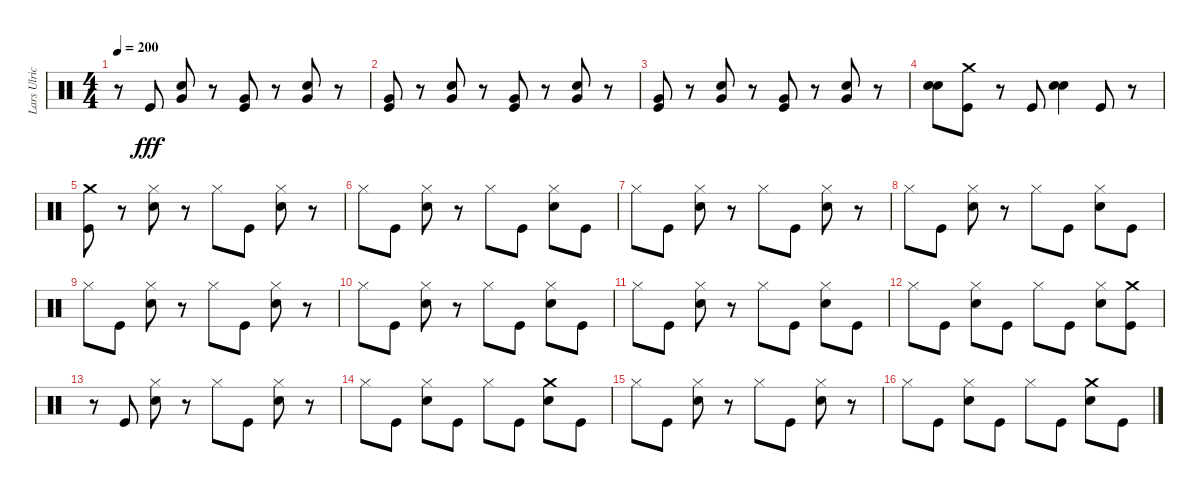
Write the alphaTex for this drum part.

\track ("Lars Ulrich" "Lars Ulric") {instrument percussion}
\staff {score}
\articulation defaults
\ts (4 4)
\tempo 200
\clef neutral
\ks c
r.8{dy fff} "Kick (hit)".8 ("Very Low Tom (hit)" "Snare (hit) 2").8 r.8 ("Kick (hit)" "Very Low Tom (hit)").8 r.8 ("Very Low Tom (hit)" "Snare (hit) 2").8 r.8 |
("Kick (hit)" "Very Low Tom (hit)").8 r.8 ("Very Low Tom (hit)" "Snare (hit) 2").8 r.8 ("Kick (hit)" "Very Low Tom (hit)").8 r.8 ("Very Low Tom (hit)" "Snare (hit) 2").8 r.8 |
("Very Low Tom (hit)" "Kick (hit)").8 r.8 ("Snare (hit) 2" "Very Low Tom (hit)").8 r.8 ("Very Low Tom (hit)" "Kick (hit)").8 r.8 ("Very Low Tom (hit)" "Snare (hit) 2").8 r.8 |
("Snare (hit) 2" "Snare (hit) 2").8 ("Kick (hit)" "Crash medium (hit)").8 r.8 "Kick (hit)".8 ("Snare (hit) 2" "Snare (hit) 2").4 "Kick (hit)".8 r.8 |
("Crash medium (hit)" "Kick (hit)").8 r.8 ("Hi-Hat (closed)" "Snare (hit) 2").8 r.8 "Hi-Hat (closed)".8 "Kick (hit)".8 ("Hi-Hat (closed)" "Snare (hit) 2").8 r.8 |
"Hi-Hat (closed)".8 "Kick (hit)".8 ("Hi-Hat (closed)" "Snare (hit) 2").8 r.8 "Hi-Hat (closed)".8 "Kick (hit)".8 ("Hi-Hat (closed)" "Snare (hit) 2").8 "Kick (hit)".8 |
"Hi-Hat (closed)".8 "Kick (hit)".8 ("Hi-Hat (closed)" "Snare (hit) 2").8 r.8 "Hi-Hat (closed)".8 "Kick (hit)".8 ("Snare (hit) 2" "Hi-Hat (closed)").8 r.8 |
"Hi-Hat (closed)".8 "Kick (hit)".8 ("Hi-Hat (closed)" "Snare (hit) 2").8 r.8 "Hi-Hat (closed)".8 "Kick (hit)".8 ("Hi-Hat (closed)" "Snare (hit) 2").8 "Kick (hit)".8 |
"Hi-Hat (closed)".8 "Kick (hit)".8 ("Snare (hit) 2" "Hi-Hat (closed)").8 r.8 "Hi-Hat (closed)".8 "Kick (hit)".8 ("Hi-Hat (closed)" "Snare (hit) 2").8 r.8 |
"Hi-Hat (closed)".8 "Kick (hit)".8 ("Hi-Hat (closed)" "Snare (hit) 2").8 r.8 "Hi-Hat (closed)".8 "Kick (hit)".8 ("Hi-Hat (closed)" "Snare (hit) 2").8 "Kick (hit)".8 |
"Hi-Hat (closed)".8 "Kick (hit)".8 ("Hi-Hat (closed)" "Snare (hit) 2").8 r.8 "Hi-Hat (closed)".8 "Kick (hit)".8 ("Hi-Hat (closed)" "Snare (hit) 2").8 "Kick (hit)".8 |
"Hi-Hat (closed)".8 "Kick (hit)".8 ("Hi-Hat (closed)" "Snare (hit) 2").8 "Kick (hit)".8 "Hi-Hat (closed)".8 "Kick (hit)".8 ("Hi-Hat (closed)" "Snare (hit) 2").8 ("Crash medium (hit)" "Kick (hit)").8 |
r.8 "Kick (hit)".8 ("Hi-Hat (closed)" "Snare (hit) 2").8 r.8 "Hi-Hat (closed)".8 "Kick (hit)".8 ("Hi-Hat (closed)" "Snare (hit) 2").8 r.8 |
"Hi-Hat (closed)".8 "Kick (hit)".8 ("Hi-Hat (closed)" "Snare (hit) 2").8 "Kick (hit)".8 "Hi-Hat (closed)".8 "Kick (hit)".8 ("Crash medium (hit)" "Snare (hit) 2").8 "Kick (hit)".8 |
"Hi-Hat (closed)".8 "Kick (hit)".8 ("Hi-Hat (closed)" "Snare (hit) 2").8 r.8 "Hi-Hat (closed)".8 "Kick (hit)".8 ("Hi-Hat (closed)" "Snare (hit) 2").8 r.8 |
"Hi-Hat (closed)".8 "Kick (hit)".8 ("Snare (hit) 2" "Hi-Hat (closed)").8 "Kick (hit)".8 "Hi-Hat (closed)".8 "Kick (hit)".8 ("Crash medium (hit)" "Snare (hit) 2").8 "Kick (hit)".8
